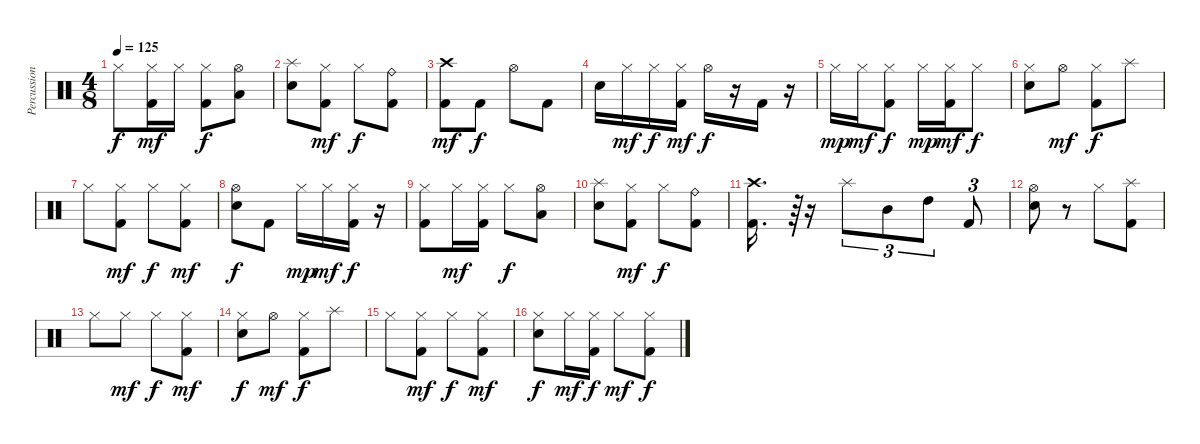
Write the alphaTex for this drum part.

\track ("Percussion" "Percussion") {instrument percussion}
\staff {score}
\articulation defaults
\ts (4 8)
\tempo 125
\clef neutral
\ks c "Hi-Hat (closed)".8{dy f}
("Hi-Hat (closed)" "Kick (hit) 2").16{dy mf} "Hi-Hat (closed)".16 ("Hi-Hat (closed)" "Kick (hit) 2").8{dy f} ("Hi-Hat (open)" "Low Tom (hit)").8 |
("Splash (hit)" "Snare (hit) 2").8 ("Hi-Hat (closed)" "Kick (hit) 2").8{dy mf} "Hi-Hat (closed)".8{dy f} ("Ride (bell)" "Kick (hit) 2").8 |
("Crash high (hit)" "Kick (hit) 2").8{dy mf} "Kick (hit) 2".8{dy f} "Hi-Hat (open)".8 "Kick (hit) 2".8 |
"Snare (hit) 2".16 "Hi-Hat (closed)".16{dy mf} "Hi-Hat (closed)".16{dy f} ("Hi-Hat (closed)" "Kick (hit) 2").16{dy mf} "Hi-Hat (open)".16{dy f} r.16 "Kick (hit) 2".16 r.16 |
"Hi-Hat (closed)".16{dy mp} "Hi-Hat (closed)".16{dy mf} ("Hi-Hat (closed)" "Kick (hit) 2").8{dy f} "Hi-Hat (closed)".16{dy mp} ("Hi-Hat (closed)" "Kick (hit) 2").16{dy mf} "Hi-Hat (closed)".8{dy f} |
("Hi-Hat (closed)" "Snare (hit) 2").8 "Hi-Hat (open)".8{dy mf} ("Hi-Hat (closed)" "Kick (hit) 2").8{dy f} "Splash (hit)".8 |
"Hi-Hat (closed)".8 ("Hi-Hat (closed)" "Kick (hit) 2").8{dy mf} "Hi-Hat (closed)".8{dy f} ("Hi-Hat (closed)" "Kick (hit) 2").8{dy mf} |
("Hi-Hat (open)" "Snare (hit) 2").8{dy f} "Kick (hit) 2".8 "Hi-Hat (closed)".16{dy mp} "Hi-Hat (closed)".16{dy mf} ("Hi-Hat (closed)" "Kick (hit) 2").16{dy f} r.16 |
("Hi-Hat (closed)" "Kick (hit) 2").8 "Hi-Hat (closed)".16{dy mf} ("Hi-Hat (closed)" "Kick (hit) 2").16 "Hi-Hat (closed)".8{dy f} ("Hi-Hat (open)" "Low Tom (hit)").8 |
("Splash (hit)" "Snare (hit) 2").8 ("Hi-Hat (closed)" "Kick (hit) 2").8{dy mf} "Hi-Hat (closed)".8{dy f} ("Ride (bell)" "Kick (hit) 2").8 |
("Crash high (hit)" "Kick (hit) 2").16{d} r.64{tu (3 2)} r.16 "Splash (hit)".8{tu (3 2)} "Mid Tom (hit)".8{tu (3 2)} "High Tom (hit)".8{tu (3 2)} "Kick (hit) 2".8{tu (3 2)} |
("Hi-Hat (open)" "Snare (hit) 2").8 r.8 "Hi-Hat (closed)".8 ("Splash (hit)" "Kick (hit) 2").8 |
"Hi-Hat (closed)".8 "Hi-Hat (closed)".8{dy mf} "Hi-Hat (closed)".8{dy f} ("Hi-Hat (closed)" "Kick (hit) 2").8{dy mf} |
("Hi-Hat (closed)" "Snare (hit) 2").8{dy f} "Hi-Hat (open)".8{dy mf} ("Hi-Hat (closed)" "Kick (hit) 2").8{dy f} "Splash (hit)".8 |
"Hi-Hat (closed)".8 ("Hi-Hat (closed)" "Kick (hit) 2").8{dy mf} "Hi-Hat (closed)".8{dy f} ("Hi-Hat (closed)" "Kick (hit) 2").8{dy mf} |
("Hi-Hat (closed)" "Snare (hit) 2").8{dy f} "Hi-Hat (closed)".16{dy mf} ("Hi-Hat (closed)" "Kick (hit) 2").16{dy f} "Hi-Hat (closed)".8{dy mf} ("Hi-Hat (closed)" "Kick (hit) 2").8{dy f}
